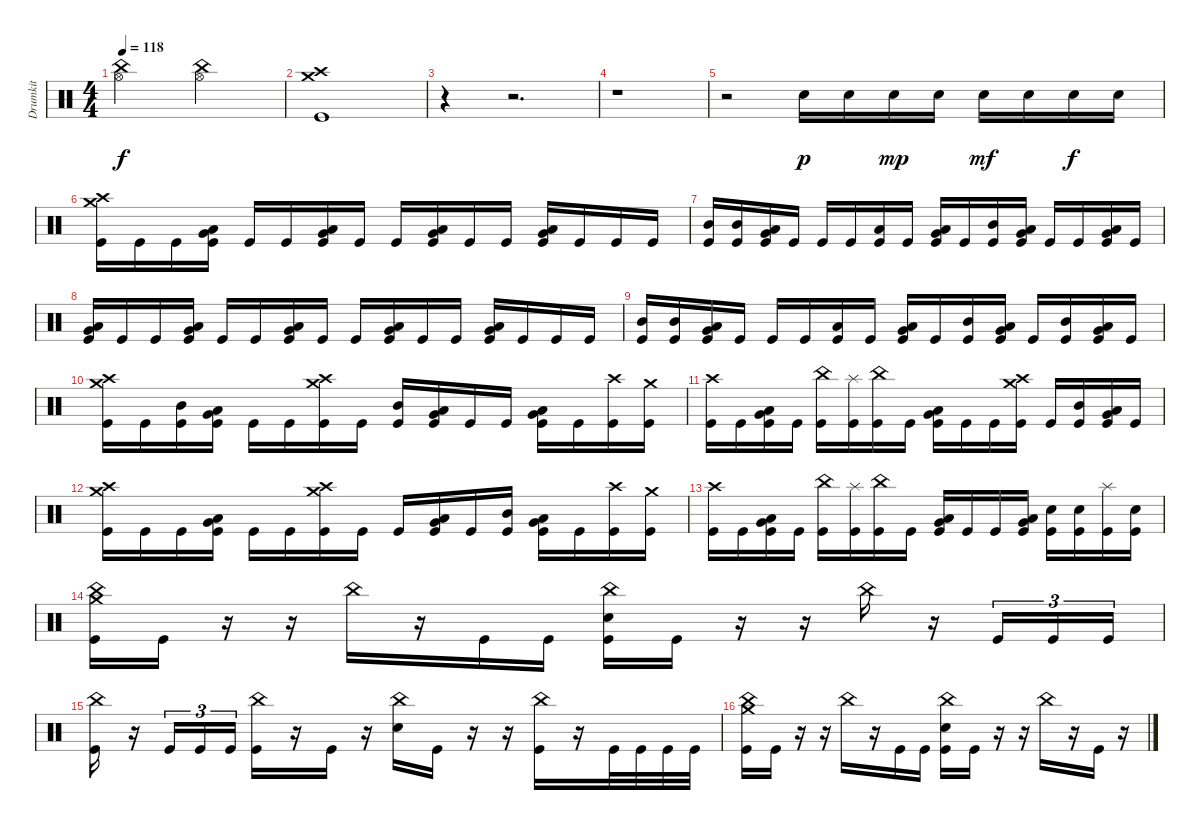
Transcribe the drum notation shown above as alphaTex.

\track ("Drumkit" "Drumkit") {instrument percussion}
\staff {score}
\articulation defaults
\ts (4 4)
\tempo 118
\clef neutral
\ks c
("Hi-Hat (open)" "China (hit)").2{dy f} ("Hi-Hat (open)" "China (hit)").2 |
("Kick (hit)" "Crash high (hit)" "Crash medium (hit)").1 |
r.4 r.2{d} |
r.1 |
r.2 "Snare (hit) 2".16{dy p} "Snare (hit) 2".16 "Snare (hit) 2".16{dy mp} "Snare (hit) 2".16 "Snare (hit) 2".16{dy mf} "Snare (hit) 2".16 "Snare (hit) 2".16{dy f} "Snare (hit) 2".16 |
("Kick (hit)" "Crash high (hit)" "Crash medium (hit)").16 "Kick (hit)".16 "Kick (hit)".16 ("Kick (hit)" "Very Low Tom (hit)" "Low Tom (hit)").16 "Kick (hit)".16 "Kick (hit)".16 ("Kick (hit)" "Very Low Tom (hit)" "Low Tom (hit)").16 "Kick (hit)".16 "Kick (hit)".16 ("Kick (hit)" "Very Low Tom (hit)" "Low Tom (hit)").16 "Kick (hit)".16 "Kick (hit)".16 ("Kick (hit)" "Very Low Tom (hit)" "Low Tom (hit)").16 "Kick (hit)".16 "Kick (hit)".16 "Kick (hit)".16 |
("Mid Tom (hit)" "Kick (hit)").16 ("Mid Tom (hit)" "Kick (hit)").16 ("Kick (hit)" "Very Low Tom (hit)" "Low Tom (hit)").16 "Kick (hit)".16 "Kick (hit)".16 "Kick (hit)".16 ("Low Tom (hit)" "Kick (hit)").16 "Kick (hit)".16 ("Kick (hit)" "Very Low Tom (hit)" "Low Tom (hit)").16 "Kick (hit)".16 ("Mid Tom (hit)" "Kick (hit)").16 ("Kick (hit)" "Very Low Tom (hit)" "Low Tom (hit)").16 "Kick (hit)".16 "Kick (hit)".16 ("Kick (hit)" "Very Low Tom (hit)" "Low Tom (hit)").16 "Kick (hit)".16 |
("Kick (hit)" "Very Low Tom (hit)" "Low Tom (hit)").16 "Kick (hit)".16 "Kick (hit)".16 ("Kick (hit)" "Very Low Tom (hit)" "Low Tom (hit)").16 "Kick (hit)".16 "Kick (hit)".16 ("Kick (hit)" "Very Low Tom (hit)" "Low Tom (hit)").16 "Kick (hit)".16 "Kick (hit)".16 ("Kick (hit)" "Very Low Tom (hit)" "Low Tom (hit)").16 "Kick (hit)".16 "Kick (hit)".16 ("Kick (hit)" "Very Low Tom (hit)" "Low Tom (hit)").16 "Kick (hit)".16 "Kick (hit)".16 "Kick (hit)".16 |
("Mid Tom (hit)" "Kick (hit)").16 ("Mid Tom (hit)" "Kick (hit)").16 ("Kick (hit)" "Very Low Tom (hit)" "Low Tom (hit)").16 "Kick (hit)".16 "Kick (hit)".16 "Kick (hit)".16 ("Low Tom (hit)" "Kick (hit)").16 "Kick (hit)".16 ("Kick (hit)" "Very Low Tom (hit)" "Low Tom (hit)").16 "Kick (hit)".16 ("Mid Tom (hit)" "Kick (hit)").16 ("Kick (hit)" "Very Low Tom (hit)" "Low Tom (hit)").16 "Kick (hit)".16 ("Mid Tom (hit)" "Kick (hit)").16 ("Kick (hit)" "Very Low Tom (hit)" "Low Tom (hit)").16 "Kick (hit)".16 |
("Kick (hit)" "Crash high (hit)" "Crash medium (hit)").16 "Kick (hit)".16 ("Mid Tom (hit)" "Kick (hit)").16 ("Kick (hit)" "Very Low Tom (hit)" "Low Tom (hit)").16 "Kick (hit)".16 "Kick (hit)".16 ("Kick (hit)" "Crash high (hit)" "Crash medium (hit)").16 "Kick (hit)".16 ("Mid Tom (hit)" "Kick (hit)").16 ("Kick (hit)" "Very Low Tom (hit)" "Low Tom (hit)").16 "Kick (hit)".16 "Kick (hit)".16 ("Kick (hit)" "Very Low Tom (hit)" "Low Tom (hit)").16 "Kick (hit)".16 ("Kick (hit)" "Crash high (hit)").16 ("Kick (hit)" "Crash medium (hit)").16 |
("Kick (hit)" "Crash high (hit)").16 "Kick (hit)".16 ("Kick (hit)" "Very Low Tom (hit)" "Low Tom (hit)").16 "Kick (hit)".16 ("Kick (hit)" "China (hit)").16 ("Kick (hit)" "Splash (hit)").16 ("Kick (hit)" "China (hit)").16 "Kick (hit)".16 ("Kick (hit)" "Very Low Tom (hit)" "Low Tom (hit)").16 "Kick (hit)".16 "Kick (hit)".16 ("Kick (hit)" "Crash high (hit)" "Crash medium (hit)").16 "Kick (hit)".16 ("Mid Tom (hit)" "Kick (hit)").16 ("Kick (hit)" "Very Low Tom (hit)" "Low Tom (hit)").16 "Kick (hit)".16 |
("Kick (hit)" "Crash medium (hit)" "Crash high (hit)").16 "Kick (hit)".16 "Kick (hit)".16 ("Kick (hit)" "Very Low Tom (hit)" "Low Tom (hit)").16 "Kick (hit)".16 "Kick (hit)".16 ("Kick (hit)" "Crash high (hit)" "Crash medium (hit)").16 "Kick (hit)".16 "Kick (hit)".16 ("Kick (hit)" "Very Low Tom (hit)" "Low Tom (hit)").16 "Kick (hit)".16 ("Mid Tom (hit)" "Kick (hit)").16 ("Kick (hit)" "Very Low Tom (hit)" "Low Tom (hit)").16 "Kick (hit)".16 ("Kick (hit)" "Crash high (hit)").16 ("Kick (hit)" "Crash medium (hit)").16 |
("Kick (hit)" "Crash high (hit)").16 "Kick (hit)".16 ("Kick (hit)" "Very Low Tom (hit)" "Low Tom (hit)").16 "Kick (hit)".16 ("Kick (hit)" "China (hit)").16 ("Kick (hit)" "Splash (hit)").16 ("Kick (hit)" "China (hit)").16 "Kick (hit)".16 ("Kick (hit)" "Very Low Tom (hit)" "Low Tom (hit)").16 "Kick (hit)".16 "Kick (hit)".16 ("Kick (hit)" "Very Low Tom (hit)" "Low Tom (hit)").16 ("Kick (hit)" "Snare (hit) 2").16 ("Kick (hit)" "Snare (hit) 2").16 ("Kick (hit)" "Splash (hit)").16 ("Kick (hit)" "Snare (hit) 2").16 |
("Kick (hit)" "China (hit)" "Crash medium (hit)").16 "Kick (hit)".16 r.16 r.16 "China (hit)".16 r.16 "Kick (hit)".16 "Kick (hit)".16 ("Kick (hit)" "China (hit)" "Snare (hit) 2").16 "Kick (hit)".16 r.16 r.16 "China (hit)".16 r.16 "Kick (hit)".16{tu (3 2)} "Kick (hit)".16{tu (3 2)} "Kick (hit)".16{tu (3 2)} |
("Kick (hit)" "China (hit)").16 r.16 "Kick (hit)".16{tu (3 2)} "Kick (hit)".16{tu (3 2)} "Kick (hit)".16{tu (3 2)} ("Kick (hit)" "China (hit)").16 r.16 "Kick (hit)".16 r.16 ("China (hit)" "Snare (hit) 2").16 "Kick (hit)".16 r.16 r.16 ("China (hit)" "Kick (hit)").16 r.16 "Kick (hit)".32 "Kick (hit)".32 "Kick (hit)".32 "Kick (hit)".32 |
("Kick (hit)" "China (hit)" "Crash medium (hit)").16 "Kick (hit)".16 r.16 r.16 "China (hit)".16 r.16 "Kick (hit)".16 "Kick (hit)".16 ("Kick (hit)" "China (hit)" "Snare (hit) 2").16 "Kick (hit)".16 r.16 r.16 "China (hit)".16 r.16 "Kick (hit)".16 r.16
